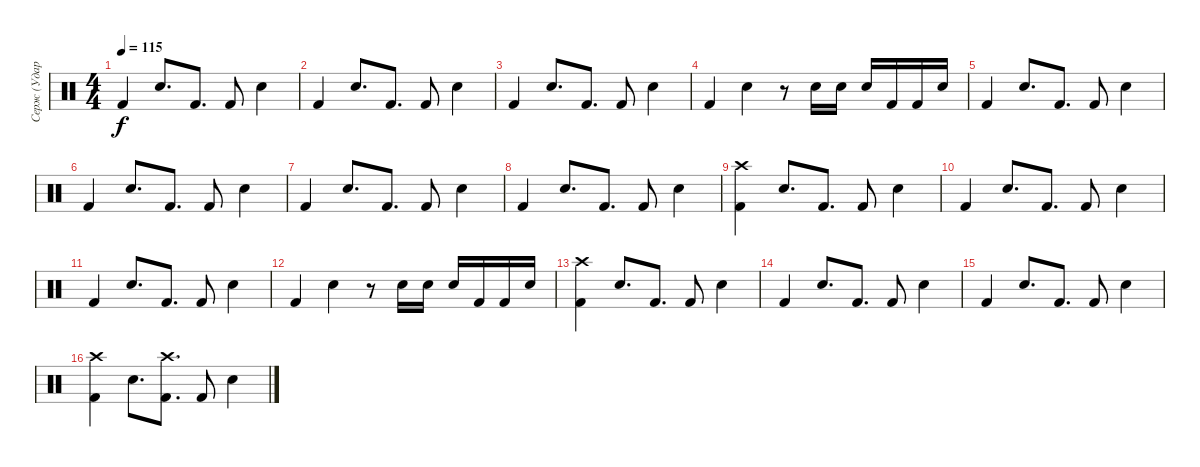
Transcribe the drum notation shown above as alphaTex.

\track ("Серж (Ударные)" "Серж (Удар") {instrument percussion}
\staff {score}
\articulation defaults
\ts (4 4)
\tempo 115
\clef neutral
\ks c "Kick (hit) 2".4{dy f} "Snare (hit) 2".8{d} "Kick (hit) 2".8{d} "Kick (hit) 2".8 "Snare (hit) 2".4
|
"Kick (hit) 2".4 "Snare (hit) 2".8{d} "Kick (hit) 2".8{d} "Kick (hit) 2".8 "Snare (hit) 2".4 |
"Kick (hit) 2".4 "Snare (hit) 2".8{d} "Kick (hit) 2".8{d} "Kick (hit) 2".8 "Snare (hit) 2".4 |
"Kick (hit) 2".4 "Snare (hit) 2".4 r.8 "Snare (hit) 2".16 "Snare (hit) 2".16 "Snare (hit) 2".16 "Kick (hit) 2".16 "Kick (hit) 2".16 "Snare (hit) 2".16 |
"Kick (hit) 2".4 "Snare (hit) 2".8{d} "Kick (hit) 2".8{d} "Kick (hit) 2".8 "Snare (hit) 2".4 |
"Kick (hit) 2".4 "Snare (hit) 2".8{d} "Kick (hit) 2".8{d} "Kick (hit) 2".8 "Snare (hit) 2".4 |
"Kick (hit) 2".4 "Snare (hit) 2".8{d} "Kick (hit) 2".8{d} "Kick (hit) 2".8 "Snare (hit) 2".4 |
"Kick (hit) 2".4 "Snare (hit) 2".8{d} "Kick (hit) 2".8{d} "Kick (hit) 2".8 "Snare (hit) 2".4 |
("Kick (hit) 2" "Crash high (hit)").4 "Snare (hit) 2".8{d} "Kick (hit) 2".8{d} "Kick (hit) 2".8 "Snare (hit) 2".4 |
"Kick (hit) 2".4 "Snare (hit) 2".8{d} "Kick (hit) 2".8{d} "Kick (hit) 2".8 "Snare (hit) 2".4 |
"Kick (hit) 2".4 "Snare (hit) 2".8{d} "Kick (hit) 2".8{d} "Kick (hit) 2".8 "Snare (hit) 2".4 |
"Kick (hit) 2".4 "Snare (hit) 2".4 r.8 "Snare (hit) 2".16 "Snare (hit) 2".16 "Snare (hit) 2".16 "Kick (hit) 2".16 "Kick (hit) 2".16 "Snare (hit) 2".16 |
("Kick (hit) 2" "Crash high (hit)").4 "Snare (hit) 2".8{d} "Kick (hit) 2".8{d} "Kick (hit) 2".8 "Snare (hit) 2".4 |
"Kick (hit) 2".4 "Snare (hit) 2".8{d} "Kick (hit) 2".8{d} "Kick (hit) 2".8 "Snare (hit) 2".4 |
"Kick (hit) 2".4 "Snare (hit) 2".8{d} "Kick (hit) 2".8{d} "Kick (hit) 2".8 "Snare (hit) 2".4 |
("Kick (hit) 2" "Crash high (hit)").4 "Snare (hit) 2".8{d} ("Kick (hit) 2" "Crash high (hit)").8{d} "Kick (hit) 2".8 "Snare (hit) 2".4
